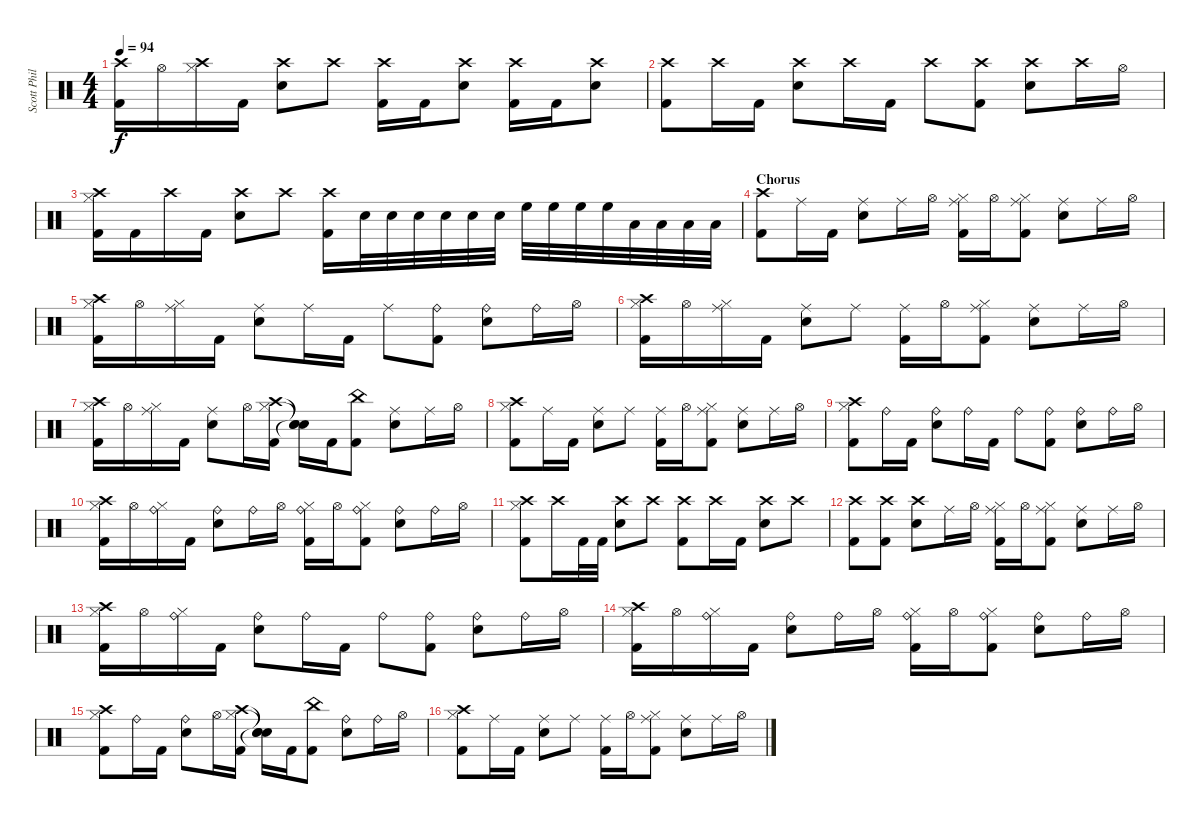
\track ("Scott Phillips" "Scott Phil") {instrument percussion}
\staff {score}
\articulation defaults
\ts (4 4)
\tempo 94
\clef neutral
\ks c
("Crash high (hit)" "Kick (hit) 2").16{dy f} "Hi-Hat (open)".16 ("Crash high (hit)" "Hi-Hat (closed)").16 "Kick (hit) 2".16 ("Crash high (hit)" "Electric Snare (hit)").8 "Crash high (hit)".8 ("Crash high (hit)" "Kick (hit) 2").16 "Kick (hit) 2".16 ("Crash high (hit)" "Electric Snare (hit)").8 ("Crash high (hit)" "Kick (hit) 2").16 "Kick (hit) 2".16 ("Crash high (hit)" "Electric Snare (hit)").8 |
("Crash high (hit)" "Kick (hit) 2").8 "Crash high (hit)".16 "Kick (hit) 2".16 ("Crash high (hit)" "Electric Snare (hit)").8 "Crash high (hit)".16 "Kick (hit) 2".16 "Crash high (hit)".8 ("Crash high (hit)" "Kick (hit) 2").8 ("Crash high (hit)" "Electric Snare (hit)").8 "Crash high (hit)".16 "Hi-Hat (open)".16 |
("Crash high (hit)" "Hi-Hat (closed)" "Kick (hit) 2").16 "Kick (hit) 2".16 "Crash high (hit)".16 "Kick (hit) 2".16 ("Crash high (hit)" "Electric Snare (hit)").8 "Crash high (hit)".8 ("Crash high (hit)" "Kick (hit) 2").16 "Electric Snare (hit)".32 "Electric Snare (hit)".32 "Electric Snare (hit)".32 "Electric Snare (hit)".32 "Electric Snare (hit)".32 "Electric Snare (hit)".32 "High Floor Tom (hit)".32 "High Floor Tom (hit)".32 "High Floor Tom (hit)".32 "High Floor Tom (hit)".32 "Low Tom (hit)".32 "Low Tom (hit)".32 "Low Floor Tom (hit)".32 "Low Floor Tom (hit)".32 |
\section ("" "Chorus")
("Crash high (hit)" "Kick (hit) 2").8 "Ride (middle)".16 "Kick (hit) 2".16 ("Ride (middle)" "Electric Snare (hit)").8 "Ride (middle)".16 "Hi-Hat (open)".16 ("Ride (middle)" "Hi-Hat (closed)" "Kick (hit) 2").16 "Hi-Hat (open)".16 ("Ride (middle)" "Hi-Hat (closed)" "Kick (hit) 2").8 ("Ride (middle)" "Electric Snare (hit)").8 "Ride (middle)".16 "Hi-Hat (open)".16 |
("Crash high (hit)" "Hi-Hat (closed)" "Kick (hit) 2").16 "Hi-Hat (open)".16 ("Ride (middle)" "Hi-Hat (closed)").16 "Kick (hit) 2".16 ("Ride (middle)" "Electric Snare (hit)").8 "Ride (middle)".16 "Kick (hit) 2".16 "Ride (middle)".8 ("Ride (bell)" "Kick (hit) 2").8 ("Ride (bell)" "Electric Snare (hit)").8 "Ride (bell)".16 "Hi-Hat (open)".16 |
("Crash high (hit)" "Hi-Hat (closed)" "Kick (hit) 2").16 "Hi-Hat (open)".16 ("Ride (middle)" "Hi-Hat (closed)").16 "Kick (hit) 2".16 ("Ride (middle)" "Electric Snare (hit)").8 "Ride (middle)".8 ("Ride (middle)" "Kick (hit) 2").16 "Hi-Hat (open)".16 ("Ride (middle)" "Hi-Hat (closed)" "Kick (hit) 2").8 ("Ride (middle)" "Electric Snare (hit)").8 "Ride (middle)".16 "Hi-Hat (open)".16 |
("Crash high (hit)" "Hi-Hat (closed)" "Kick (hit) 2").16 "Hi-Hat (open)".16 ("Ride (middle)" "Hi-Hat (closed)").16 "Kick (hit) 2".16 ("Ride (middle)" "Electric Snare (hit)").8 "Hi-Hat (open)".16 ("Crash high (hit)" "Hi-Hat (closed)" "Kick (hit) 2").16 ("Snare (hit)"{t} "Snare (hit)"{t} "Snare (hit)"{t}).16 "Kick (hit) 2".16 ("China (hit)" "Kick (hit) 2").8 ("Ride (middle)" "Electric Snare (hit)").8 "Ride (middle)".16 "Hi-Hat (open)".16 |
("Crash high (hit)" "Hi-Hat (closed)" "Kick (hit) 2").8 "Ride (middle)".16 "Kick (hit) 2".16 ("Ride (middle)" "Electric Snare (hit)").8 "Ride (middle)".8 ("Ride (middle)" "Kick (hit) 2").16 "Hi-Hat (open)".16 ("Ride (middle)" "Hi-Hat (closed)" "Kick (hit) 2").8 ("Ride (middle)" "Electric Snare (hit)").8 "Ride (middle)".16 "Hi-Hat (open)".16 |
("Crash high (hit)" "Hi-Hat (closed)" "Kick (hit) 2").8 "Ride (bell)".16 "Kick (hit) 2".16 ("Ride (bell)" "Electric Snare (hit)").8 "Ride (bell)".16 "Kick (hit) 2".16 "Ride (bell)".8 ("Ride (bell)" "Kick (hit) 2").8 ("Ride (bell)" "Electric Snare (hit)").8 "Ride (bell)".16 "Hi-Hat (open)".16 |
("Crash high (hit)" "Hi-Hat (closed)" "Kick (hit) 2").16 "Hi-Hat (open)".16 ("Ride (bell)" "Hi-Hat (closed)").16 "Kick (hit) 2".16 ("Ride (bell)" "Electric Snare (hit)").8 "Ride (bell)".16 "Hi-Hat (open)".16 ("Ride (bell)" "Hi-Hat (closed)" "Kick (hit) 2").16 "Hi-Hat (open)".16 ("Ride (bell)" "Hi-Hat (closed)" "Kick (hit) 2").8 ("Ride (bell)" "Electric Snare (hit)").8 "Ride (bell)".16 "Hi-Hat (open)".16 |
("Crash high (hit)" "Hi-Hat (closed)" "Kick (hit) 2").8 "Crash high (hit)".16 "Kick (hit) 2".32 "Kick (hit) 2".32 ("Crash high (hit)" "Electric Snare (hit)").8 "Crash high (hit)".8 ("Crash high (hit)" "Kick (hit) 2").8 "Crash high (hit)".16 "Kick (hit) 2".16 ("Crash high (hit)" "Electric Snare (hit)").8 "Crash high (hit)".8 |
("Crash high (hit)" "Kick (hit) 2").8 ("Crash high (hit)" "Kick (hit) 2").8 ("Crash high (hit)" "Electric Snare (hit)").8 "Ride (middle)".16 "Hi-Hat (open)".16 ("Ride (middle)" "Hi-Hat (closed)" "Kick (hit) 2").16 "Hi-Hat (open)".16 ("Ride (middle)" "Hi-Hat (closed)" "Kick (hit) 2").8 ("Ride (middle)" "Electric Snare (hit)").8 "Ride (middle)".16 "Hi-Hat (open)".16 |
("Crash high (hit)" "Hi-Hat (closed)" "Kick (hit) 2").16 "Hi-Hat (open)".16 ("Ride (bell)" "Hi-Hat (closed)").16 "Kick (hit) 2".16 ("Ride (bell)" "Electric Snare (hit)").8 "Ride (bell)".16 "Kick (hit) 2".16 "Ride (bell)".8 ("Ride (bell)" "Kick (hit) 2").8 ("Ride (bell)" "Electric Snare (hit)").8 "Ride (bell)".16 "Hi-Hat (open)".16 |
("Crash high (hit)" "Hi-Hat (closed)" "Kick (hit) 2").16 "Hi-Hat (open)".16 ("Ride (bell)" "Hi-Hat (closed)").16 "Kick (hit) 2".16 ("Ride (bell)" "Electric Snare (hit)").8 "Ride (bell)".16 "Hi-Hat (open)".16 ("Ride (bell)" "Hi-Hat (closed)" "Kick (hit) 2").16 "Hi-Hat (open)".16 ("Ride (bell)" "Hi-Hat (closed)" "Kick (hit) 2").8 ("Ride (bell)" "Electric Snare (hit)").8 "Ride (bell)".16 "Hi-Hat (open)".16 |
("Crash high (hit)" "Hi-Hat (closed)" "Kick (hit) 2").8 "Ride (bell)".16 "Kick (hit) 2".16 ("Ride (bell)" "Electric Snare (hit)").8 "Hi-Hat (open)".16 ("Crash high (hit)" "Hi-Hat (closed)" "Kick (hit) 2").16 ("Snare (hit)"{t} "Snare (hit)"{t} "Snare (hit)"{t}).16 "Kick (hit) 2".16 ("China (hit)" "Kick (hit) 2").8 ("Ride (bell)" "Electric Snare (hit)").8 "Ride (bell)".16 "Hi-Hat (open)".16 |
("Crash high (hit)" "Hi-Hat (closed)" "Kick (hit) 2").8 "Ride (middle)".16 "Kick (hit) 2".16 ("Ride (middle)" "Electric Snare (hit)").8 "Ride (middle)".8 ("Ride (middle)" "Kick (hit) 2").16 "Hi-Hat (open)".16 ("Ride (middle)" "Hi-Hat (closed)" "Kick (hit) 2").8 ("Ride (middle)" "Electric Snare (hit)").8 "Ride (middle)".16 "Hi-Hat (open)".16
